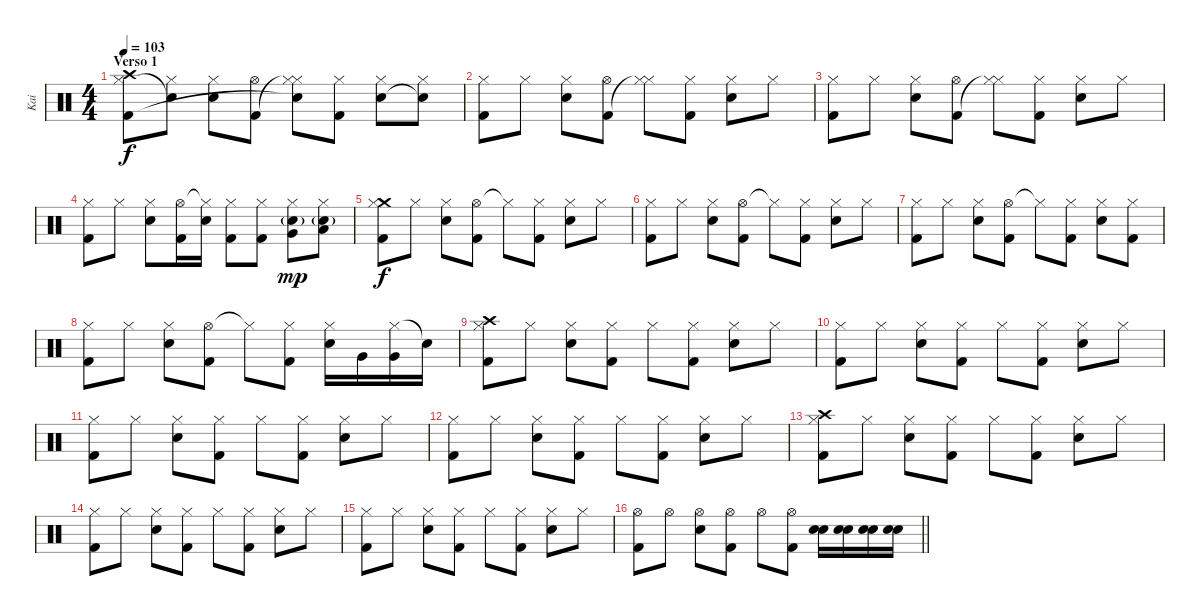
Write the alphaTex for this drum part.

\track ("Kai" "Kai") {instrument percussion}
\staff {score}
\articulation defaults
\ts (4 4)
\section ("" "Verso 1")
\tempo 103
\clef neutral
\ks c
("Crash high (hit)" "Hi-Hat (closed)" "Kick (hit) 2").8{dy f} ("Hi-Hat (closed)" "Snare (hit)"{t}).8 ("Hi-Hat (closed)" "Electric Snare (hit)").8 ("Hi-Hat (open)" "Kick (hit) 2").8 ("Hi-Hat (closed)" "Hi-Hat (closed)"{t} "Snare (hit)"{t}).8 ("Hi-Hat (closed)" "Kick (hit) 2").8 ("Hi-Hat (closed)" "Electric Snare (hit)").8 ("Hi-Hat (closed)" "Snare (hit)"{t}).8 |
("Hi-Hat (closed)" "Kick (hit) 2").8 "Hi-Hat (closed)".8 ("Hi-Hat (closed)" "Electric Snare (hit)").8 ("Hi-Hat (open)" "Kick (hit) 2").8 ("Hi-Hat (closed)" "Hi-Hat (closed)"{t}).8 ("Hi-Hat (closed)" "Kick (hit) 2").8 ("Hi-Hat (closed)" "Electric Snare (hit)").8 "Hi-Hat (closed)".8 |
("Hi-Hat (closed)" "Kick (hit) 2").8 "Hi-Hat (closed)".8 ("Hi-Hat (closed)" "Electric Snare (hit)").8 ("Hi-Hat (open)" "Kick (hit) 2").8 ("Hi-Hat (closed)" "Hi-Hat (closed)"{t}).8 ("Hi-Hat (closed)" "Kick (hit) 2").8 ("Hi-Hat (closed)" "Electric Snare (hit)").8 "Hi-Hat (closed)".8 |
("Hi-Hat (closed)" "Kick (hit) 2").8 "Hi-Hat (closed)".8 ("Hi-Hat (closed)" "Electric Snare (hit)").8 ("Hi-Hat (open)" "Kick (hit) 2").16 ("Hi-Hat (closed)"{t} "Electric Snare (hit)").16 ("Hi-Hat (closed)" "Kick (hit) 2").8 ("Hi-Hat (closed)" "Kick (hit) 2").8 ("Electric Snare (hit)"{g} "Hi-Hat (closed)" "Very Low Tom (hit)").8{dy mp} ("Electric Snare (hit)"{g} "Hi-Hat (closed)" "Low Floor Tom (hit)").8 |
("Crash medium (hit)" "Hi-Hat (closed)" "Kick (hit) 2").8{dy f} "Hi-Hat (closed)".8 ("Hi-Hat (closed)" "Electric Snare (hit)").8 ("Hi-Hat (open)" "Kick (hit) 2").8 "Hi-Hat (closed)"{t}.8 ("Hi-Hat (closed)" "Kick (hit) 2").8 ("Hi-Hat (closed)" "Electric Snare (hit)").8 "Hi-Hat (closed)".8 |
("Hi-Hat (closed)" "Kick (hit) 2").8 "Hi-Hat (closed)".8 ("Hi-Hat (closed)" "Electric Snare (hit)").8 ("Hi-Hat (open)" "Kick (hit) 2").8 "Hi-Hat (closed)"{t}.8 ("Hi-Hat (closed)" "Kick (hit) 2").8 ("Hi-Hat (closed)" "Electric Snare (hit)").8 "Hi-Hat (closed)".8 |
("Hi-Hat (closed)" "Kick (hit) 2").8 "Hi-Hat (closed)".8 ("Hi-Hat (closed)" "Electric Snare (hit)").8 ("Hi-Hat (open)" "Kick (hit) 2").8 "Hi-Hat (closed)"{t}.8 ("Hi-Hat (closed)" "Kick (hit) 2").8 ("Hi-Hat (closed)" "Electric Snare (hit)").8 ("Hi-Hat (closed)" "Kick (hit) 2").8 |
("Hi-Hat (closed)" "Kick (hit) 2").8 "Hi-Hat (closed)".8 ("Hi-Hat (closed)" "Electric Snare (hit)").8 ("Hi-Hat (open)" "Kick (hit) 2").8 "Hi-Hat (closed)"{t}.8 ("Hi-Hat (closed)" "Kick (hit) 2").8 ("Hi-Hat (closed)" "Electric Snare (hit)").16 "Very Low Tom (hit)".16 ("Hi-Hat (closed)" "Very Low Tom (hit)").16 "Snare (hit)"{t}.16 |
("Crash high (hit)" "Hi-Hat (closed)" "Kick (hit) 2").8 "Hi-Hat (closed)".8 ("Hi-Hat (closed)" "Electric Snare (hit)").8 ("Hi-Hat (closed)" "Kick (hit) 2").8 "Hi-Hat (closed)".8 ("Hi-Hat (closed)" "Kick (hit) 2").8 ("Hi-Hat (closed)" "Electric Snare (hit)").8 "Hi-Hat (closed)".8 |
("Hi-Hat (closed)" "Kick (hit) 2").8 "Hi-Hat (closed)".8 ("Hi-Hat (closed)" "Electric Snare (hit)").8 ("Hi-Hat (closed)" "Kick (hit) 2").8 "Hi-Hat (closed)".8 ("Hi-Hat (closed)" "Kick (hit) 2").8 ("Hi-Hat (closed)" "Electric Snare (hit)").8 "Hi-Hat (closed)".8 |
("Hi-Hat (closed)" "Kick (hit) 2").8 "Hi-Hat (closed)".8 ("Hi-Hat (closed)" "Electric Snare (hit)").8 ("Hi-Hat (closed)" "Kick (hit) 2").8 "Hi-Hat (closed)".8 ("Hi-Hat (closed)" "Kick (hit) 2").8 ("Hi-Hat (closed)" "Electric Snare (hit)").8 "Hi-Hat (closed)".8 |
("Hi-Hat (closed)" "Kick (hit) 2").8 "Hi-Hat (closed)".8 ("Hi-Hat (closed)" "Electric Snare (hit)").8 ("Hi-Hat (closed)" "Kick (hit) 2").8 "Hi-Hat (closed)".8 ("Hi-Hat (closed)" "Kick (hit) 2").8 ("Hi-Hat (closed)" "Electric Snare (hit)").8 "Hi-Hat (closed)".8 |
("Crash high (hit)" "Hi-Hat (closed)" "Kick (hit) 2").8 "Hi-Hat (closed)".8 ("Hi-Hat (closed)" "Electric Snare (hit)").8 ("Hi-Hat (closed)" "Kick (hit) 2").8 "Hi-Hat (closed)".8 ("Hi-Hat (closed)" "Kick (hit) 2").8 ("Hi-Hat (closed)" "Electric Snare (hit)").8 "Hi-Hat (closed)".8 |
("Hi-Hat (closed)" "Kick (hit) 2").8 "Hi-Hat (closed)".8 ("Hi-Hat (closed)" "Electric Snare (hit)").8 ("Hi-Hat (closed)" "Kick (hit) 2").8 "Hi-Hat (closed)".8 ("Hi-Hat (closed)" "Kick (hit) 2").8 ("Hi-Hat (closed)" "Electric Snare (hit)").8 "Hi-Hat (closed)".8 |
("Hi-Hat (closed)" "Kick (hit) 2").8 "Hi-Hat (closed)".8 ("Hi-Hat (closed)" "Electric Snare (hit)").8 ("Hi-Hat (closed)" "Kick (hit) 2").8 "Hi-Hat (closed)".8 ("Hi-Hat (closed)" "Kick (hit) 2").8 ("Hi-Hat (closed)" "Electric Snare (hit)").8 "Hi-Hat (closed)".8 |
\barLineRight lightlight
("Hi-Hat (open)" "Kick (hit) 2").8 "Hi-Hat (open)".8 ("Hi-Hat (open)" "Electric Snare (hit)").8 ("Hi-Hat (open)" "Kick (hit) 2").8 "Hi-Hat (open)".8 ("Hi-Hat (open)" "Kick (hit) 2").8 ("Electric Snare (hit)" "Electric Snare (hit)").16 ("Electric Snare (hit)" "Electric Snare (hit)").16 ("Electric Snare (hit)" "Electric Snare (hit)").16 ("Electric Snare (hit)" "Electric Snare (hit)").16
